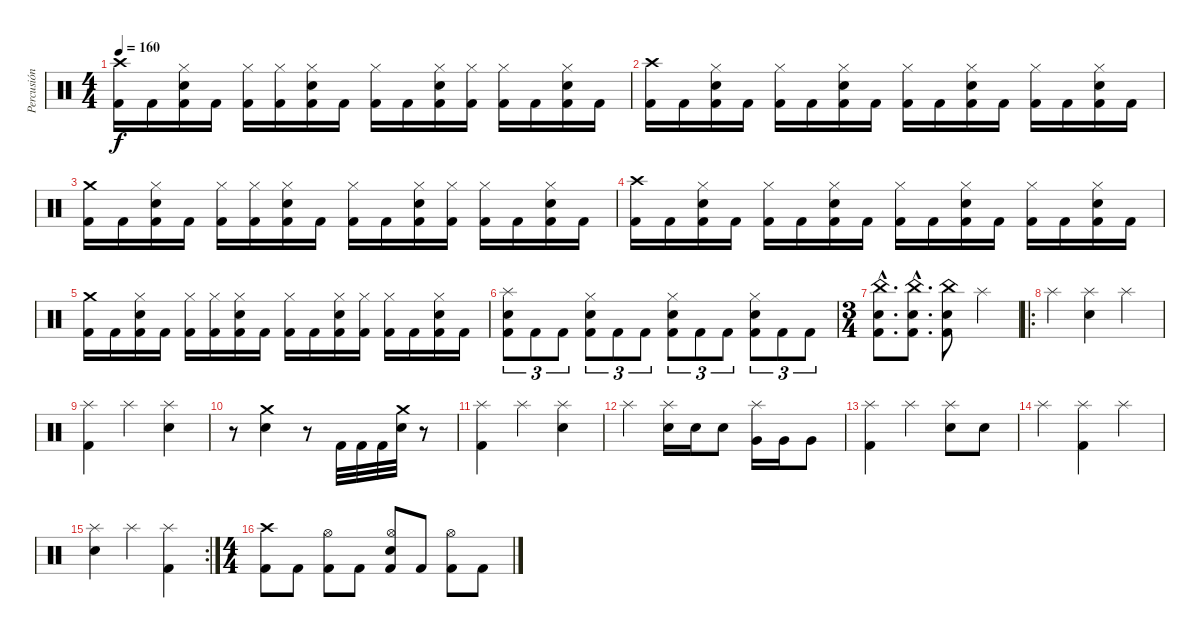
\track ("Percusión" "Percusión") {instrument percussion}
\staff {score}
\articulation defaults
\ts (4 4)
\tempo 160
\clef neutral
\ks c
("Kick (hit) 2" "Crash high (hit)").16{dy f} "Kick (hit) 2".16 ("Kick (hit) 2" "Snare (hit) 2" "Hi-Hat (closed)").16 "Kick (hit) 2".16 ("Kick (hit) 2" "Hi-Hat (closed)").16 ("Kick (hit) 2" "Hi-Hat (closed)").16 ("Kick (hit) 2" "Snare (hit) 2" "Hi-Hat (closed)").16 "Kick (hit) 2".16 ("Kick (hit) 2" "Hi-Hat (closed)").16 "Kick (hit) 2".16 ("Kick (hit) 2" "Snare (hit) 2" "Hi-Hat (closed)").16 ("Kick (hit) 2" "Hi-Hat (closed)").16 ("Kick (hit) 2" "Hi-Hat (closed)").16 "Kick (hit) 2".16 ("Kick (hit) 2" "Snare (hit) 2" "Hi-Hat (closed)").16 "Kick (hit) 2".16 |
("Kick (hit) 2" "Crash high (hit)").16 "Kick (hit) 2".16 ("Kick (hit) 2" "Snare (hit) 2" "Hi-Hat (closed)").16 "Kick (hit) 2".16 ("Kick (hit) 2" "Hi-Hat (closed)").16 "Kick (hit) 2".16 ("Kick (hit) 2" "Snare (hit) 2" "Hi-Hat (closed)").16 "Kick (hit) 2".16 ("Kick (hit) 2" "Hi-Hat (closed)").16 "Kick (hit) 2".16 ("Kick (hit) 2" "Snare (hit) 2" "Hi-Hat (closed)").16 "Kick (hit) 2".16 ("Kick (hit) 2" "Hi-Hat (closed)").16 "Kick (hit) 2".16 ("Kick (hit) 2" "Snare (hit) 2" "Hi-Hat (closed)").16 "Kick (hit) 2".16 |
("Kick (hit) 2" "Crash medium (hit)").16 "Kick (hit) 2".16 ("Kick (hit) 2" "Snare (hit) 2" "Hi-Hat (closed)").16 "Kick (hit) 2".16 ("Kick (hit) 2" "Hi-Hat (closed)").16 ("Kick (hit) 2" "Hi-Hat (closed)").16 ("Kick (hit) 2" "Snare (hit) 2" "Hi-Hat (closed)").16 "Kick (hit) 2".16 ("Kick (hit) 2" "Hi-Hat (closed)").16 "Kick (hit) 2".16 ("Kick (hit) 2" "Snare (hit) 2" "Hi-Hat (closed)").16 ("Kick (hit) 2" "Hi-Hat (closed)").16 ("Kick (hit) 2" "Hi-Hat (closed)").16 "Kick (hit) 2".16 ("Kick (hit) 2" "Snare (hit) 2" "Hi-Hat (closed)").16 "Kick (hit) 2".16 |
("Kick (hit) 2" "Crash high (hit)").16 "Kick (hit) 2".16 ("Kick (hit) 2" "Snare (hit) 2" "Hi-Hat (closed)").16 "Kick (hit) 2".16 ("Kick (hit) 2" "Hi-Hat (closed)").16 "Kick (hit) 2".16 ("Kick (hit) 2" "Snare (hit) 2" "Hi-Hat (closed)").16 "Kick (hit) 2".16 ("Kick (hit) 2" "Hi-Hat (closed)").16 "Kick (hit) 2".16 ("Kick (hit) 2" "Snare (hit) 2" "Hi-Hat (closed)").16 "Kick (hit) 2".16 ("Kick (hit) 2" "Hi-Hat (closed)").16 "Kick (hit) 2".16 ("Kick (hit) 2" "Snare (hit) 2" "Hi-Hat (closed)").16 "Kick (hit) 2".16 |
("Kick (hit) 2" "Crash medium (hit)").16 "Kick (hit) 2".16 ("Kick (hit) 2" "Snare (hit) 2" "Hi-Hat (closed)").16 "Kick (hit) 2".16 ("Kick (hit) 2" "Hi-Hat (closed)").16 ("Kick (hit) 2" "Hi-Hat (closed)").16 ("Kick (hit) 2" "Snare (hit) 2" "Hi-Hat (closed)").16 "Kick (hit) 2".16 ("Kick (hit) 2" "Hi-Hat (closed)").16 "Kick (hit) 2".16 ("Kick (hit) 2" "Snare (hit) 2" "Hi-Hat (closed)").16 ("Kick (hit) 2" "Hi-Hat (closed)").16 ("Kick (hit) 2" "Hi-Hat (closed)").16 "Kick (hit) 2".16 ("Kick (hit) 2" "Snare (hit) 2" "Hi-Hat (closed)").16 "Kick (hit) 2".16 |
("Kick (hit) 2" "Snare (hit) 2" "Splash (hit)").8{tu (3 2)} "Kick (hit) 2".8{tu (3 2)} "Kick (hit) 2".8{tu (3 2)} ("Kick (hit) 2" "Snare (hit) 2" "Hi-Hat (closed)").8{tu (3 2)} "Kick (hit) 2".8{tu (3 2)} "Kick (hit) 2".8{tu (3 2)} ("Kick (hit) 2" "Snare (hit) 2" "Hi-Hat (closed)").8{tu (3 2)} "Kick (hit) 2".8{tu (3 2)} "Kick (hit) 2".8{tu (3 2)} ("Kick (hit) 2" "Snare (hit) 2" "Hi-Hat (closed)").8{tu (3 2)} "Kick (hit) 2".8{tu (3 2)} "Kick (hit) 2".8{tu (3 2)} |
\ts (3 4)
("Kick (hit) 2"{hac} "Snare (hit) 2"{hac} "China (hit)"{hac}).8{d} ("Kick (hit) 2"{hac} "Snare (hit) 2"{hac} "China (hit)"{hac}).8{d} ("Kick (hit) 2" "Snare (hit) 2" "China (hit)").8 "Splash (hit)".4 |
\ro "Splash (hit)".4
("Snare (hit) 2" "Splash (hit)").4 "Splash (hit)".4 |
("Kick (hit) 2" "Splash (hit)").4 "Splash (hit)".4 ("Snare (hit) 2" "Splash (hit)").4 |
r.8 ("Snare (hit) 2" "Crash medium (hit)").4 r.8 "Kick (hit) 2".32 "Kick (hit) 2".32 "Kick (hit) 2".32 ("Snare (hit) 2" "Crash medium (hit)").32 r.8 |
("Kick (hit) 2" "Splash (hit)").4 "Splash (hit)".4 ("Snare (hit) 2" "Splash (hit)").4 |
"Splash (hit)".4 ("Snare (hit) 2" "Splash (hit)").16 "Snare (hit) 2".16 "Snare (hit) 2".8 ("Very Low Tom (hit)" "Splash (hit)").16 "Very Low Tom (hit)".16 "Very Low Tom (hit)".8 |
("Kick (hit) 2" "Splash (hit)").4 "Splash (hit)".4 ("Snare (hit) 2" "Splash (hit)").8 "Snare (hit) 2".8 |
"Splash (hit)".4 ("Kick (hit) 2" "Splash (hit)").4 "Splash (hit)".4 |
\rc 2
("Snare (hit) 2" "Splash (hit)").4 "Splash (hit)".4 ("Kick (hit) 2" "Splash (hit)").4 |
\ts (4 4)
("Kick (hit) 2" "Crash high (hit)").8 "Kick (hit) 2".8 ("Kick (hit) 2" "Hi-Hat (open)").8 "Kick (hit) 2".8 ("Kick (hit) 2" "Electric Snare (hit)" "Hi-Hat (open)").8 "Kick (hit) 2".8 ("Kick (hit) 2" "Hi-Hat (open)").8 "Kick (hit) 2".8
